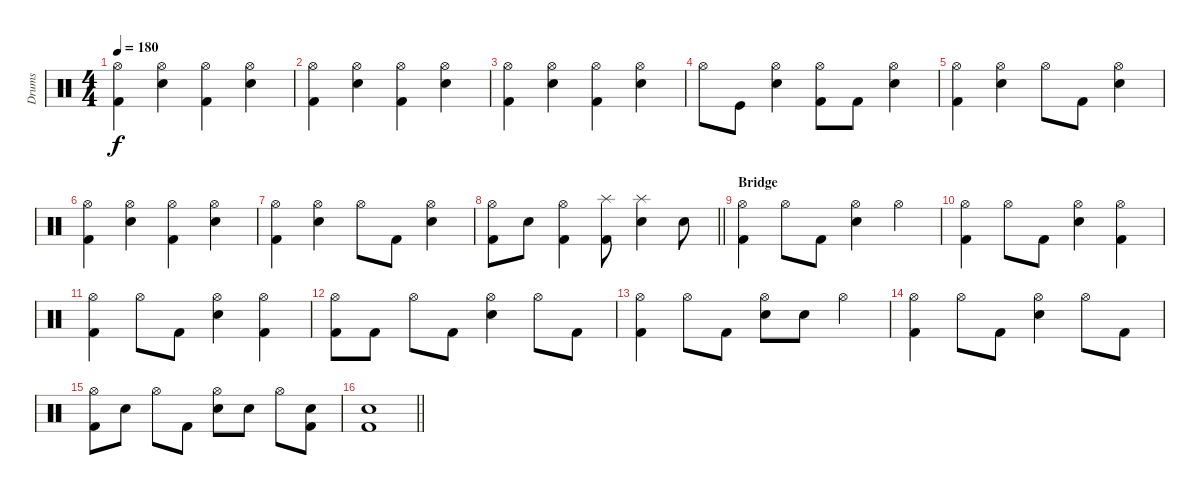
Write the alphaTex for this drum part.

\track ("Drums" "Drums") {instrument percussion}
\staff {score}
\articulation defaults
\ts (4 4)
\tempo 180
\clef neutral
\ks c
("Hi-Hat (open)" "Kick (hit) 2").4{dy f} ("Hi-Hat (open)" "Electric Snare (hit)").4 ("Hi-Hat (open)" "Kick (hit) 2").4 ("Hi-Hat (open)" "Electric Snare (hit)").4 |
("Hi-Hat (open)" "Kick (hit) 2").4 ("Hi-Hat (open)" "Electric Snare (hit)").4 ("Hi-Hat (open)" "Kick (hit) 2").4 ("Hi-Hat (open)" "Electric Snare (hit)").4 |
("Hi-Hat (open)" "Kick (hit) 2").4 ("Hi-Hat (open)" "Electric Snare (hit)").4 ("Hi-Hat (open)" "Kick (hit) 2").4 ("Hi-Hat (open)" "Electric Snare (hit)").4 |
"Hi-Hat (open)".8 "Kick (hit)".8 ("Hi-Hat (open)" "Electric Snare (hit)").4 ("Hi-Hat (open)" "Kick (hit) 2").8 "Kick (hit) 2".8 ("Hi-Hat (open)" "Electric Snare (hit)").4 |
("Hi-Hat (open)" "Kick (hit) 2").4 ("Hi-Hat (open)" "Electric Snare (hit)").4 "Hi-Hat (open)".8 "Kick (hit) 2".8 ("Hi-Hat (open)" "Electric Snare (hit)").4 |
("Hi-Hat (open)" "Kick (hit) 2").4 ("Hi-Hat (open)" "Electric Snare (hit)").4 ("Hi-Hat (open)" "Kick (hit) 2").4 ("Hi-Hat (open)" "Electric Snare (hit)").4 |
("Hi-Hat (open)" "Kick (hit) 2").4 ("Hi-Hat (open)" "Electric Snare (hit)").4 "Hi-Hat (open)".8 "Kick (hit) 2".8 ("Hi-Hat (open)" "Electric Snare (hit)").4 |
\barLineRight lightlight
("Hi-Hat (open)" "Kick (hit) 2").8 "Electric Snare (hit)".8 ("Hi-Hat (open)" "Kick (hit) 2").4 ("Splash (hit)" "Kick (hit) 2").8 ("Splash (hit)" "Electric Snare (hit)").4 "Electric Snare (hit)".8 |
\section ("" "Bridge")
("Hi-Hat (open)" "Kick (hit) 2").4 "Hi-Hat (open)".8 "Kick (hit) 2".8 ("Hi-Hat (open)" "Electric Snare (hit)").4 "Hi-Hat (open)".4 |
("Hi-Hat (open)" "Kick (hit) 2").4 "Hi-Hat (open)".8 "Kick (hit) 2".8 ("Hi-Hat (open)" "Electric Snare (hit)").4 ("Hi-Hat (open)" "Kick (hit) 2").4 |
("Hi-Hat (open)" "Kick (hit) 2").4 "Hi-Hat (open)".8 "Kick (hit) 2".8 ("Hi-Hat (open)" "Electric Snare (hit)").4 ("Hi-Hat (open)" "Kick (hit) 2").4 |
("Hi-Hat (open)" "Kick (hit) 2").8 "Kick (hit) 2".8 "Hi-Hat (open)".8 "Kick (hit) 2".8 ("Hi-Hat (open)" "Electric Snare (hit)").4 "Hi-Hat (open)".8 "Kick (hit) 2".8 |
("Hi-Hat (open)" "Kick (hit) 2").4 "Hi-Hat (open)".8 "Kick (hit) 2".8 ("Hi-Hat (open)" "Electric Snare (hit)").8 "Electric Snare (hit)".8 "Hi-Hat (open)".4 |
("Hi-Hat (open)" "Kick (hit) 2").4 "Hi-Hat (open)".8 "Kick (hit) 2".8 ("Hi-Hat (open)" "Electric Snare (hit)").4 "Hi-Hat (open)".8 "Kick (hit) 2".8 |
("Hi-Hat (open)" "Kick (hit) 2").8 "Electric Snare (hit)".8 "Hi-Hat (open)".8 "Kick (hit) 2".8 ("Hi-Hat (open)" "Electric Snare (hit)").8 "Electric Snare (hit)".8 "Hi-Hat (open)".8 ("Electric Snare (hit)" "Kick (hit) 2").8 |
\barLineRight lightlight
("Electric Snare (hit)" "Kick (hit) 2").1
